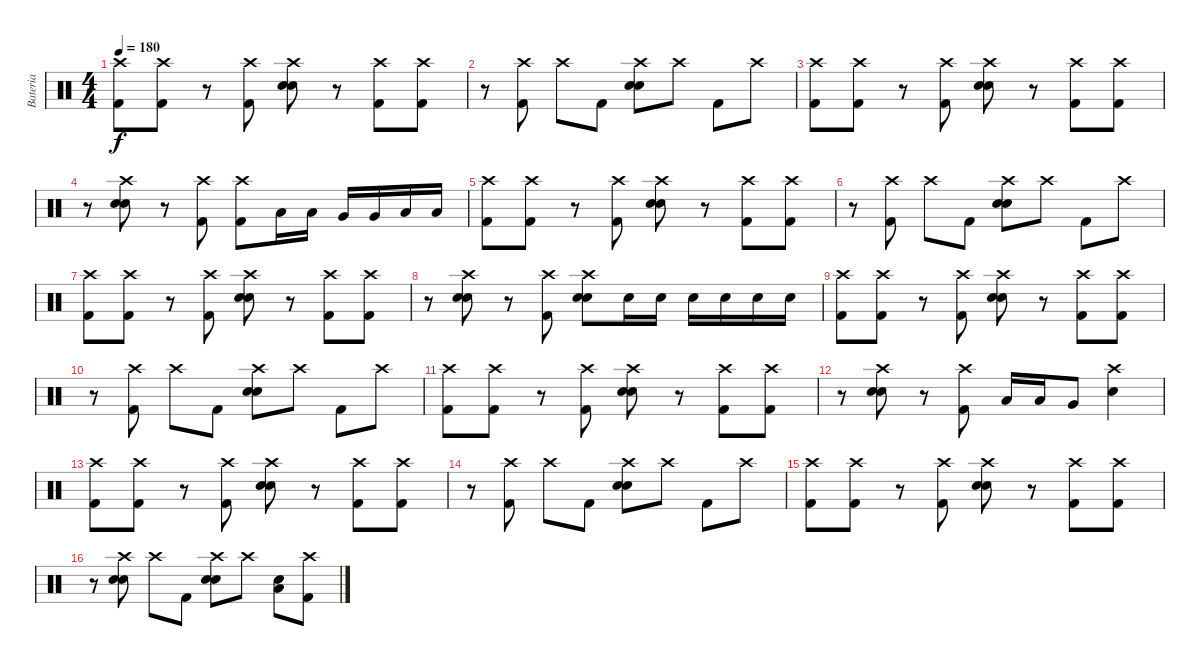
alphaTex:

\track ("Bateria" "Bateria") {instrument percussion}
\staff {score}
\articulation defaults
\ts (4 4)
\tempo 180
\clef neutral
\ks c
("Crash high (hit)" "Kick (hit) 2").8{dy f} ("Crash high (hit)" "Kick (hit) 2").8 r.8 ("Crash high (hit)" "Kick (hit) 2").8 ("Crash high (hit)" "Snare (hit) 2" "Electric Snare (hit)").8 r.8 ("Crash high (hit)" "Kick (hit) 2").8 ("Crash high (hit)" "Kick (hit) 2").8 |
r.8 ("Crash high (hit)" "Kick (hit) 2").8 "Crash high (hit)".8 "Kick (hit) 2".8 ("Crash high (hit)" "Snare (hit) 2" "Electric Snare (hit)").8 "Crash high (hit)".8 "Kick (hit) 2".8 "Crash high (hit)".8 |
("Crash high (hit)" "Kick (hit) 2").8 ("Crash high (hit)" "Kick (hit) 2").8 r.8 ("Crash high (hit)" "Kick (hit) 2").8 ("Crash high (hit)" "Snare (hit) 2" "Electric Snare (hit)").8 r.8 ("Crash high (hit)" "Kick (hit) 2").8 ("Crash high (hit)" "Kick (hit) 2").8 |
r.8 ("Crash high (hit)" "Electric Snare (hit)" "Snare (hit) 2").8 r.8 ("Crash high (hit)" "Kick (hit) 2").8 ("Crash high (hit)" "Kick (hit) 2").8 "Low Tom (hit)".16 "Low Tom (hit)".16 "Very Low Tom (hit)".16 "Very Low Tom (hit)".16 "Low Floor Tom (hit)".16 "Low Floor Tom (hit)".16 |
("Crash high (hit)" "Kick (hit) 2").8 ("Crash high (hit)" "Kick (hit) 2").8 r.8 ("Crash high (hit)" "Kick (hit) 2").8 ("Crash high (hit)" "Snare (hit) 2" "Electric Snare (hit)").8 r.8 ("Crash high (hit)" "Kick (hit) 2").8 ("Crash high (hit)" "Kick (hit) 2").8 |
r.8 ("Crash high (hit)" "Kick (hit) 2").8 "Crash high (hit)".8 "Kick (hit) 2".8 ("Crash high (hit)" "Snare (hit) 2" "Electric Snare (hit)").8 "Crash high (hit)".8 "Kick (hit) 2".8 "Crash high (hit)".8 |
("Crash high (hit)" "Kick (hit) 2").8 ("Crash high (hit)" "Kick (hit) 2").8 r.8 ("Crash high (hit)" "Kick (hit) 2").8 ("Crash high (hit)" "Snare (hit) 2" "Electric Snare (hit)").8 r.8 ("Crash high (hit)" "Kick (hit) 2").8 ("Crash high (hit)" "Kick (hit) 2").8 |
r.8 ("Crash high (hit)" "Snare (hit) 2" "Electric Snare (hit)").8 r.8 ("Crash high (hit)" "Kick (hit) 2").8 ("Crash high (hit)" "Snare (hit) 2" "Electric Snare (hit)").8 "Electric Snare (hit)".16 "Electric Snare (hit)".16 "Electric Snare (hit)".16 "Electric Snare (hit)".16 "Electric Snare (hit)".16 "Electric Snare (hit)".16 |
("Crash high (hit)" "Kick (hit) 2").8 ("Crash high (hit)" "Kick (hit) 2").8 r.8 ("Crash high (hit)" "Kick (hit) 2").8 ("Crash high (hit)" "Snare (hit) 2" "Electric Snare (hit)").8 r.8 ("Crash high (hit)" "Kick (hit) 2").8 ("Crash high (hit)" "Kick (hit) 2").8 |
r.8 ("Crash high (hit)" "Kick (hit) 2").8 "Crash high (hit)".8 "Kick (hit) 2".8 ("Crash high (hit)" "Snare (hit) 2" "Electric Snare (hit)").8 "Crash high (hit)".8 "Kick (hit) 2".8 "Crash high (hit)".8 |
("Crash high (hit)" "Kick (hit) 2").8 ("Crash high (hit)" "Kick (hit) 2").8 r.8 ("Crash high (hit)" "Kick (hit) 2").8 ("Crash high (hit)" "Snare (hit) 2" "Electric Snare (hit)").8 r.8 ("Crash high (hit)" "Kick (hit) 2").8 ("Crash high (hit)" "Kick (hit) 2").8 |
r.8 ("Crash high (hit)" "Snare (hit) 2" "Electric Snare (hit)").8 r.8 ("Crash high (hit)" "Kick (hit) 2").8 "Low Tom (hit)".16 "Low Tom (hit)".16 "Very Low Tom (hit)".8 ("Crash high (hit)" "Electric Snare (hit)").4 |
("Crash high (hit)" "Kick (hit) 2").8 ("Crash high (hit)" "Kick (hit) 2").8 r.8 ("Crash high (hit)" "Kick (hit) 2").8 ("Crash high (hit)" "Snare (hit) 2" "Electric Snare (hit)").8 r.8 ("Crash high (hit)" "Kick (hit) 2").8 ("Crash high (hit)" "Kick (hit) 2").8 |
r.8 ("Crash high (hit)" "Kick (hit) 2").8 "Crash high (hit)".8 "Kick (hit) 2".8 ("Crash high (hit)" "Snare (hit) 2" "Electric Snare (hit)").8 "Crash high (hit)".8 "Kick (hit) 2".8 "Crash high (hit)".8 |
("Crash high (hit)" "Kick (hit) 2").8 ("Crash high (hit)" "Kick (hit) 2").8 r.8 ("Crash high (hit)" "Kick (hit) 2").8 ("Crash high (hit)" "Snare (hit) 2" "Electric Snare (hit)").8 r.8 ("Crash high (hit)" "Kick (hit) 2").8 ("Crash high (hit)" "Kick (hit) 2").8 |
r.8 ("Crash high (hit)" "Snare (hit) 2" "Electric Snare (hit)").8 "Crash high (hit)".8 "Kick (hit) 2".8 ("Crash high (hit)" "Snare (hit) 2" "Electric Snare (hit)").8 "Crash high (hit)".8 ("Low Tom (hit)" "Electric Snare (hit)").8 ("Crash high (hit)" "Kick (hit) 2").8
